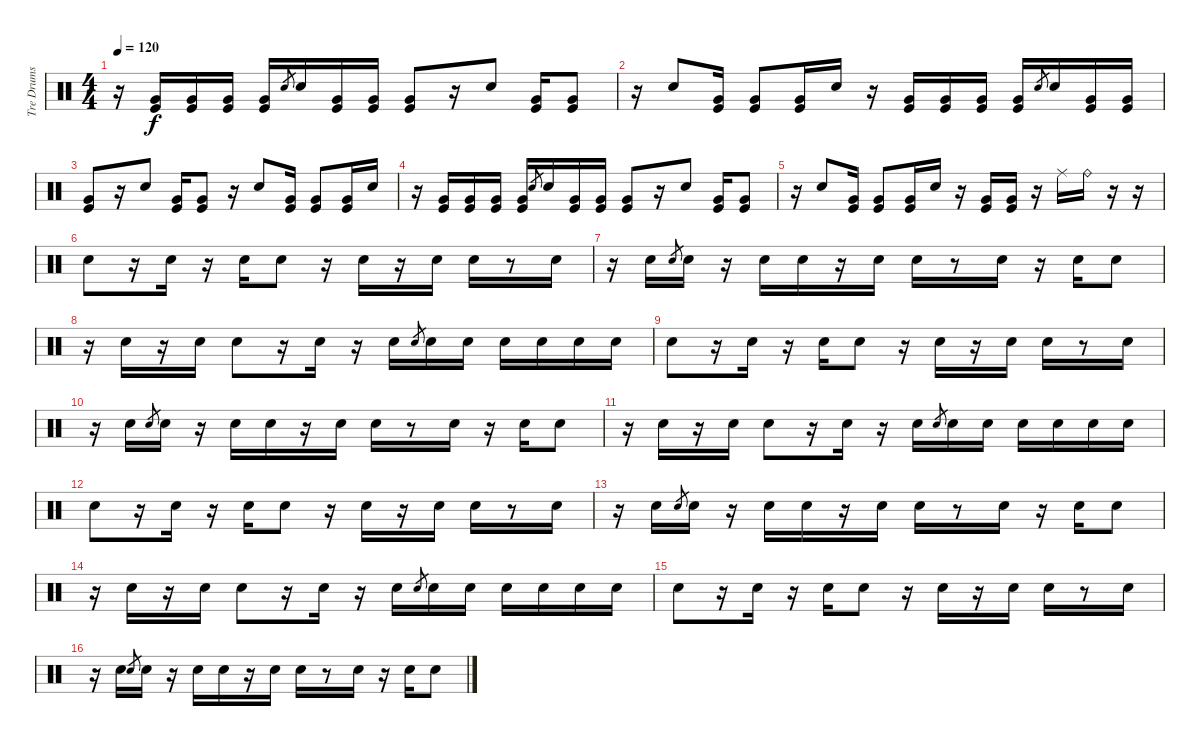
\track ("Tre Drums" "Tre Drums") {instrument percussion}
\staff {score}
\articulation defaults
\ts (4 4)
\tempo 120
\clef neutral
\ks c
r.16{dy f} ("Very Low Tom (hit)" "Kick (hit)").16 ("Very Low Tom (hit)" "Kick (hit)").16 ("Very Low Tom (hit)" "Kick (hit)").16 ("Very Low Tom (hit)" "Kick (hit)").16 "Electric Snare (hit)".8{gr} "Electric Snare (hit)".16 ("Very Low Tom (hit)" "Kick (hit)").16 ("Very Low Tom (hit)" "Kick (hit)").16 ("Very Low Tom (hit)" "Kick (hit)").8 r.16 "Electric Snare (hit)".8 ("Very Low Tom (hit)" "Kick (hit)").16 ("Very Low Tom (hit)" "Kick (hit)").8 |
r.16 "Electric Snare (hit)".8 ("Very Low Tom (hit)" "Kick (hit)").16 ("Very Low Tom (hit)" "Kick (hit)").8 ("Very Low Tom (hit)" "Kick (hit)").16 "Electric Snare (hit)".16 r.16 ("Very Low Tom (hit)" "Kick (hit)").16 ("Very Low Tom (hit)" "Kick (hit)").16 ("Very Low Tom (hit)" "Kick (hit)").16 ("Very Low Tom (hit)" "Kick (hit)").16 "Electric Snare (hit)".8{gr} "Electric Snare (hit)".16 ("Very Low Tom (hit)" "Kick (hit)").16 ("Very Low Tom (hit)" "Kick (hit)").16 |
("Very Low Tom (hit)" "Kick (hit)").8 r.16 "Electric Snare (hit)".8 ("Very Low Tom (hit)" "Kick (hit)").16 ("Very Low Tom (hit)" "Kick (hit)").8 r.16 "Electric Snare (hit)".8 ("Very Low Tom (hit)" "Kick (hit)").16 ("Very Low Tom (hit)" "Kick (hit)").8 ("Very Low Tom (hit)" "Kick (hit)").16 "Electric Snare (hit)".16 |
r.16 ("Very Low Tom (hit)" "Kick (hit)").16 ("Very Low Tom (hit)" "Kick (hit)").16 ("Very Low Tom (hit)" "Kick (hit)").16 ("Very Low Tom (hit)" "Kick (hit)").16 "Electric Snare (hit)".8{gr} "Electric Snare (hit)".16 ("Very Low Tom (hit)" "Kick (hit)").16 ("Very Low Tom (hit)" "Kick (hit)").16 ("Very Low Tom (hit)" "Kick (hit)").8 r.16 "Electric Snare (hit)".8 ("Very Low Tom (hit)" "Kick (hit)").16 ("Very Low Tom (hit)" "Kick (hit)").8 |
r.16 "Electric Snare (hit)".8 ("Very Low Tom (hit)" "Kick (hit)").16 ("Very Low Tom (hit)" "Kick (hit)").8 ("Very Low Tom (hit)" "Kick (hit)").16 "Electric Snare (hit)".16 r.16 ("Very Low Tom (hit)" "Kick (hit)").16 ("Very Low Tom (hit)" "Kick (hit)").16 r.16 "Ride (middle)".16 "Ride (bell)".16 r.16 r.16 |
"Electric Snare (hit)".8 r.16 "Electric Snare (hit)".16 r.16 "Electric Snare (hit)".16 "Electric Snare (hit)".8 r.16 "Electric Snare (hit)".16 r.16 "Electric Snare (hit)".16 "Electric Snare (hit)".16 r.8 "Electric Snare (hit)".16 |
r.16 "Electric Snare (hit)".16 "Electric Snare (hit)".8{gr} "Electric Snare (hit)".16 r.16 "Electric Snare (hit)".16 "Electric Snare (hit)".16 r.16 "Electric Snare (hit)".16 "Electric Snare (hit)".16 r.8 "Electric Snare (hit)".16 r.16 "Electric Snare (hit)".16 "Electric Snare (hit)".8 |
r.16 "Electric Snare (hit)".16 r.16 "Electric Snare (hit)".16 "Electric Snare (hit)".8 r.16 "Electric Snare (hit)".16 r.16 "Electric Snare (hit)".16 "Electric Snare (hit)".8{gr} "Electric Snare (hit)".16 "Electric Snare (hit)".16 "Electric Snare (hit)".16 "Electric Snare (hit)".16 "Electric Snare (hit)".16 "Electric Snare (hit)".16 |
"Electric Snare (hit)".8 r.16 "Electric Snare (hit)".16 r.16 "Electric Snare (hit)".16 "Electric Snare (hit)".8 r.16 "Electric Snare (hit)".16 r.16 "Electric Snare (hit)".16 "Electric Snare (hit)".16 r.8 "Electric Snare (hit)".16 |
r.16 "Electric Snare (hit)".16 "Electric Snare (hit)".8{gr} "Electric Snare (hit)".16 r.16 "Electric Snare (hit)".16 "Electric Snare (hit)".16 r.16 "Electric Snare (hit)".16 "Electric Snare (hit)".16 r.8 "Electric Snare (hit)".16 r.16 "Electric Snare (hit)".16 "Electric Snare (hit)".8 |
r.16 "Electric Snare (hit)".16 r.16 "Electric Snare (hit)".16 "Electric Snare (hit)".8 r.16 "Electric Snare (hit)".16 r.16 "Electric Snare (hit)".16 "Electric Snare (hit)".8{gr} "Electric Snare (hit)".16 "Electric Snare (hit)".16 "Electric Snare (hit)".16 "Electric Snare (hit)".16 "Electric Snare (hit)".16 "Electric Snare (hit)".16 |
"Electric Snare (hit)".8 r.16 "Electric Snare (hit)".16 r.16 "Electric Snare (hit)".16 "Electric Snare (hit)".8 r.16 "Electric Snare (hit)".16 r.16 "Electric Snare (hit)".16 "Electric Snare (hit)".16 r.8 "Electric Snare (hit)".16 |
r.16 "Electric Snare (hit)".16 "Electric Snare (hit)".8{gr} "Electric Snare (hit)".16 r.16 "Electric Snare (hit)".16 "Electric Snare (hit)".16 r.16 "Electric Snare (hit)".16 "Electric Snare (hit)".16 r.8 "Electric Snare (hit)".16 r.16 "Electric Snare (hit)".16 "Electric Snare (hit)".8 |
r.16 "Electric Snare (hit)".16 r.16 "Electric Snare (hit)".16 "Electric Snare (hit)".8 r.16 "Electric Snare (hit)".16 r.16 "Electric Snare (hit)".16 "Electric Snare (hit)".8{gr} "Electric Snare (hit)".16 "Electric Snare (hit)".16 "Electric Snare (hit)".16 "Electric Snare (hit)".16 "Electric Snare (hit)".16 "Electric Snare (hit)".16 |
"Electric Snare (hit)".8 r.16 "Electric Snare (hit)".16 r.16 "Electric Snare (hit)".16 "Electric Snare (hit)".8 r.16 "Electric Snare (hit)".16 r.16 "Electric Snare (hit)".16 "Electric Snare (hit)".16 r.8 "Electric Snare (hit)".16 |
r.16 "Electric Snare (hit)".16 "Electric Snare (hit)".8{gr} "Electric Snare (hit)".16 r.16 "Electric Snare (hit)".16 "Electric Snare (hit)".16 r.16 "Electric Snare (hit)".16 "Electric Snare (hit)".16 r.8 "Electric Snare (hit)".16 r.16 "Electric Snare (hit)".16 "Electric Snare (hit)".8
